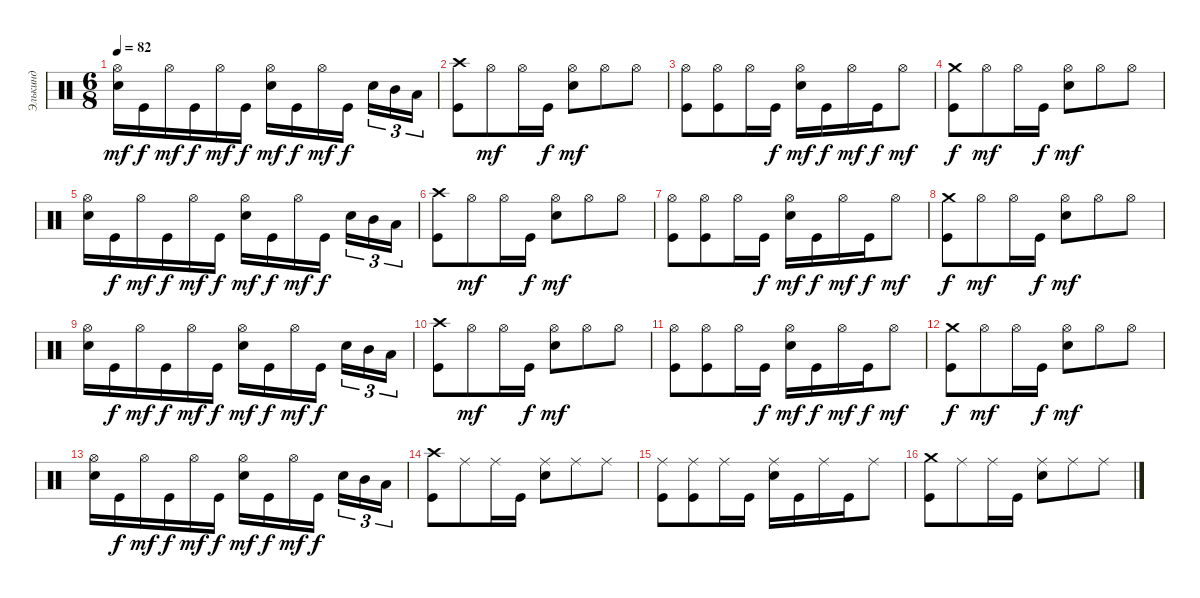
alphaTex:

\track ("Элькинд" "Элькинд") {instrument percussion}
\staff {score}
\articulation defaults
\ts (6 8)
\tempo 82
\clef neutral
\ks c
("Electric Snare (hit)" "Hi-Hat (open)").16{dy mf} "Kick (hit)".16{dy f} "Hi-Hat (open)".16{dy mf} "Kick (hit)".16{dy f} "Hi-Hat (open)".16{dy mf} "Kick (hit)".16{dy f} ("Hi-Hat (open)" "Electric Snare (hit)").16{dy mf} "Kick (hit)".16{dy f} "Hi-Hat (open)".16{dy mf} "Kick (hit)".16{dy f beam splitsecondary} "Electric Snare (hit)".16{tu (3 2)} "Mid Tom (hit)".16{tu (3 2)} "Low Tom (hit)".16{tu (3 2)} |
("Kick (hit)" "Crash high (hit)").8 "Hi-Hat (open)".8{dy mf} "Hi-Hat (open)".16 "Kick (hit)".16{dy f} ("Electric Snare (hit)" "Hi-Hat (open)").8{dy mf} "Hi-Hat (open)".8 "Hi-Hat (open)".8 |
("Hi-Hat (open)" "Kick (hit)").8 ("Hi-Hat (open)" "Kick (hit)").8 "Hi-Hat (open)".16 "Kick (hit)".16{dy f} ("Hi-Hat (open)" "Electric Snare (hit)").16{dy mf} "Kick (hit)".16{dy f} "Hi-Hat (open)".16{dy mf} "Kick (hit)".16{dy f} "Hi-Hat (open)".8{dy mf} |
("Kick (hit)" "Crash medium (hit)").8{dy f} "Hi-Hat (open)".8{dy mf} "Hi-Hat (open)".16 "Kick (hit)".16{dy f} ("Electric Snare (hit)" "Hi-Hat (open)").8{dy mf} "Hi-Hat (open)".8 "Hi-Hat (open)".8 |
("Electric Snare (hit)" "Hi-Hat (open)").16 "Kick (hit)".16{dy f} "Hi-Hat (open)".16{dy mf} "Kick (hit)".16{dy f} "Hi-Hat (open)".16{dy mf} "Kick (hit)".16{dy f} ("Hi-Hat (open)" "Electric Snare (hit)").16{dy mf} "Kick (hit)".16{dy f} "Hi-Hat (open)".16{dy mf} "Kick (hit)".16{dy f beam splitsecondary} "Electric Snare (hit)".16{tu (3 2)} "Mid Tom (hit)".16{tu (3 2)} "Low Tom (hit)".16{tu (3 2)} |
("Kick (hit)" "Crash high (hit)").8 "Hi-Hat (open)".8{dy mf} "Hi-Hat (open)".16 "Kick (hit)".16{dy f} ("Electric Snare (hit)" "Hi-Hat (open)").8{dy mf} "Hi-Hat (open)".8 "Hi-Hat (open)".8 |
("Hi-Hat (open)" "Kick (hit)").8 ("Hi-Hat (open)" "Kick (hit)").8 "Hi-Hat (open)".16 "Kick (hit)".16{dy f} ("Hi-Hat (open)" "Electric Snare (hit)").16{dy mf} "Kick (hit)".16{dy f} "Hi-Hat (open)".16{dy mf} "Kick (hit)".16{dy f} "Hi-Hat (open)".8{dy mf} |
("Kick (hit)" "Crash medium (hit)").8{dy f} "Hi-Hat (open)".8{dy mf} "Hi-Hat (open)".16 "Kick (hit)".16{dy f} ("Electric Snare (hit)" "Hi-Hat (open)").8{dy mf} "Hi-Hat (open)".8 "Hi-Hat (open)".8 |
("Electric Snare (hit)" "Hi-Hat (open)").16 "Kick (hit)".16{dy f} "Hi-Hat (open)".16{dy mf} "Kick (hit)".16{dy f} "Hi-Hat (open)".16{dy mf} "Kick (hit)".16{dy f} ("Hi-Hat (open)" "Electric Snare (hit)").16{dy mf} "Kick (hit)".16{dy f} "Hi-Hat (open)".16{dy mf} "Kick (hit)".16{dy f beam splitsecondary} "Electric Snare (hit)".16{tu (3 2)} "Mid Tom (hit)".16{tu (3 2)} "Low Tom (hit)".16{tu (3 2)} |
("Kick (hit)" "Crash high (hit)").8 "Hi-Hat (open)".8{dy mf} "Hi-Hat (open)".16 "Kick (hit)".16{dy f} ("Electric Snare (hit)" "Hi-Hat (open)").8{dy mf} "Hi-Hat (open)".8 "Hi-Hat (open)".8 |
("Hi-Hat (open)" "Kick (hit)").8 ("Hi-Hat (open)" "Kick (hit)").8 "Hi-Hat (open)".16 "Kick (hit)".16{dy f} ("Hi-Hat (open)" "Electric Snare (hit)").16{dy mf} "Kick (hit)".16{dy f} "Hi-Hat (open)".16{dy mf} "Kick (hit)".16{dy f} "Hi-Hat (open)".8{dy mf} |
("Kick (hit)" "Crash medium (hit)").8{dy f} "Hi-Hat (open)".8{dy mf} "Hi-Hat (open)".16 "Kick (hit)".16{dy f} ("Electric Snare (hit)" "Hi-Hat (open)").8{dy mf} "Hi-Hat (open)".8 "Hi-Hat (open)".8 |
("Electric Snare (hit)" "Hi-Hat (open)").16 "Kick (hit)".16{dy f} "Hi-Hat (open)".16{dy mf} "Kick (hit)".16{dy f} "Hi-Hat (open)".16{dy mf} "Kick (hit)".16{dy f} ("Hi-Hat (open)" "Electric Snare (hit)").16{dy mf} "Kick (hit)".16{dy f} "Hi-Hat (open)".16{dy mf} "Kick (hit)".16{dy f beam splitsecondary} "Electric Snare (hit)".16{tu (3 2)} "Mid Tom (hit)".16{tu (3 2)} "Low Tom (hit)".16{tu (3 2)} |
("Kick (hit)" "Crash high (hit)").8 "Ride (middle)".8 "Ride (middle)".16 "Kick (hit)".16 ("Electric Snare (hit)" "Ride (middle)").8 "Ride (middle)".8 "Ride (middle)".8 |
("Ride (middle)" "Kick (hit)").8 ("Ride (middle)" "Kick (hit)").8 "Ride (middle)".16 "Kick (hit)".16 ("Ride (middle)" "Electric Snare (hit)").16 "Kick (hit)".16 "Ride (middle)".16 "Kick (hit)".16 "Ride (middle)".8 |
("Kick (hit)" "Crash medium (hit)").8 "Ride (middle)".8 "Ride (middle)".16 "Kick (hit)".16 ("Electric Snare (hit)" "Ride (middle)").8 "Ride (middle)".8 "Ride (middle)".8
